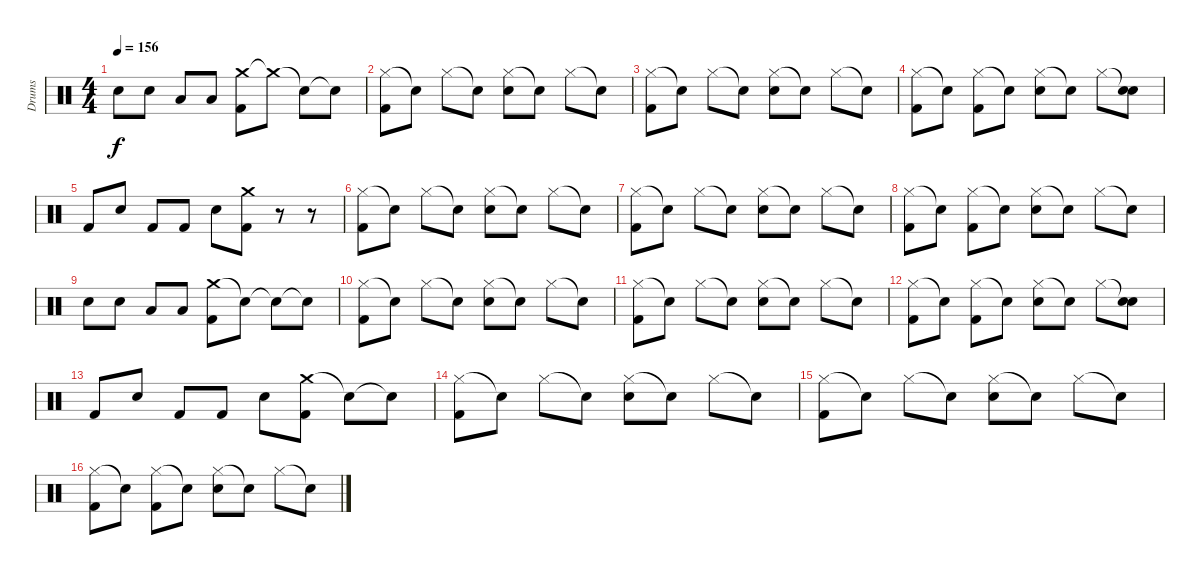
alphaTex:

\track ("Drums" "Drums") {instrument percussion}
\staff {score}
\articulation defaults
\ts (4 4)
\tempo 156
\clef neutral
\ks c "Snare (hit) 2".8{dy f} "Snare (hit) 2".8 "Low Tom (hit)".8 "Low Tom (hit)".8
("Crash medium (hit)" "Kick (hit) 2").8 "Crash medium (hit)"{t}.8 "Snare (hit)"{t}.8 "Snare (hit)"{t}.8 |
("Hi-Hat (closed)" "Kick (hit) 2").8 "Snare (hit)"{t}.8 "Hi-Hat (closed)".8 "Snare (hit)"{t}.8 ("Hi-Hat (closed)" "Snare (hit) 2").8 "Snare (hit)"{t}.8 "Hi-Hat (closed)".8 "Snare (hit)"{t}.8 |
("Hi-Hat (closed)" "Kick (hit) 2").8 "Snare (hit)"{t}.8 "Hi-Hat (closed)".8 "Snare (hit)"{t}.8 ("Hi-Hat (closed)" "Snare (hit) 2").8 "Snare (hit)"{t}.8 "Hi-Hat (closed)".8 "Snare (hit)"{t}.8 |
("Hi-Hat (closed)" "Kick (hit) 2").8 "Snare (hit)"{t}.8 ("Hi-Hat (closed)" "Kick (hit) 2").8 "Snare (hit)"{t}.8 ("Hi-Hat (closed)" "Snare (hit) 2").8 "Snare (hit)"{t}.8 "Hi-Hat (closed)".8 ("Snare (hit)"{t} "Snare (hit) 2").8 |
"Kick (hit) 2".8 "Snare (hit) 2".8 "Kick (hit) 2".8 "Kick (hit) 2".8 "Snare (hit) 2".8 ("Crash medium (hit)" "Kick (hit) 2").8 r.8 r.8 |
("Hi-Hat (closed)" "Kick (hit) 2").8 "Snare (hit)"{t}.8 "Hi-Hat (closed)".8 "Snare (hit)"{t}.8 ("Hi-Hat (closed)" "Snare (hit) 2").8 "Snare (hit)"{t}.8 "Hi-Hat (closed)".8 "Snare (hit)"{t}.8 |
("Hi-Hat (closed)" "Kick (hit) 2").8 "Snare (hit)"{t}.8 "Hi-Hat (closed)".8 "Snare (hit)"{t}.8 ("Hi-Hat (closed)" "Snare (hit) 2").8 "Snare (hit)"{t}.8 "Hi-Hat (closed)".8 "Snare (hit)"{t}.8 |
("Hi-Hat (closed)" "Kick (hit) 2").8 "Snare (hit)"{t}.8 ("Hi-Hat (closed)" "Kick (hit) 2").8 "Snare (hit)"{t}.8 ("Hi-Hat (closed)" "Snare (hit) 2").8 "Snare (hit)"{t}.8 "Hi-Hat (closed)".8 "Snare (hit)"{t}.8 |
"Snare (hit) 2".8 "Snare (hit) 2".8 "Low Tom (hit)".8 "Low Tom (hit)".8 ("Crash medium (hit)" "Kick (hit) 2").8 "Snare (hit)"{t}.8 "Snare (hit)"{t}.8 "Snare (hit)"{t}.8 |
("Hi-Hat (closed)" "Kick (hit) 2").8 "Snare (hit)"{t}.8 "Hi-Hat (closed)".8 "Snare (hit)"{t}.8 ("Hi-Hat (closed)" "Snare (hit) 2").8 "Snare (hit)"{t}.8 "Hi-Hat (closed)".8 "Snare (hit)"{t}.8 |
("Hi-Hat (closed)" "Kick (hit) 2").8 "Snare (hit)"{t}.8 "Hi-Hat (closed)".8 "Snare (hit)"{t}.8 ("Hi-Hat (closed)" "Snare (hit) 2").8 "Snare (hit)"{t}.8 "Hi-Hat (closed)".8 "Snare (hit)"{t}.8 |
("Hi-Hat (closed)" "Kick (hit) 2").8 "Snare (hit)"{t}.8 ("Hi-Hat (closed)" "Kick (hit) 2").8 "Snare (hit)"{t}.8 ("Hi-Hat (closed)" "Snare (hit) 2").8 "Snare (hit)"{t}.8 "Hi-Hat (closed)".8 ("Snare (hit)"{t} "Snare (hit) 2").8 |
"Kick (hit) 2".8 "Snare (hit) 2".8 "Kick (hit) 2".8 "Kick (hit) 2".8 "Snare (hit) 2".8 ("Crash medium (hit)" "Kick (hit) 2").8 "Snare (hit)"{t}.8 "Snare (hit)"{t}.8 |
("Hi-Hat (closed)" "Kick (hit) 2").8 "Snare (hit)"{t}.8 "Hi-Hat (closed)".8 "Snare (hit)"{t}.8 ("Hi-Hat (closed)" "Snare (hit) 2").8 "Snare (hit)"{t}.8 "Hi-Hat (closed)".8 "Snare (hit)"{t}.8 |
("Hi-Hat (closed)" "Kick (hit) 2").8 "Snare (hit)"{t}.8 "Hi-Hat (closed)".8 "Snare (hit)"{t}.8 ("Hi-Hat (closed)" "Snare (hit) 2").8 "Snare (hit)"{t}.8 "Hi-Hat (closed)".8 "Snare (hit)"{t}.8 |
("Hi-Hat (closed)" "Kick (hit) 2").8 "Snare (hit)"{t}.8 ("Hi-Hat (closed)" "Kick (hit) 2").8 "Snare (hit)"{t}.8 ("Hi-Hat (closed)" "Snare (hit) 2").8 "Snare (hit)"{t}.8 "Hi-Hat (closed)".8 "Snare (hit)"{t}.8
